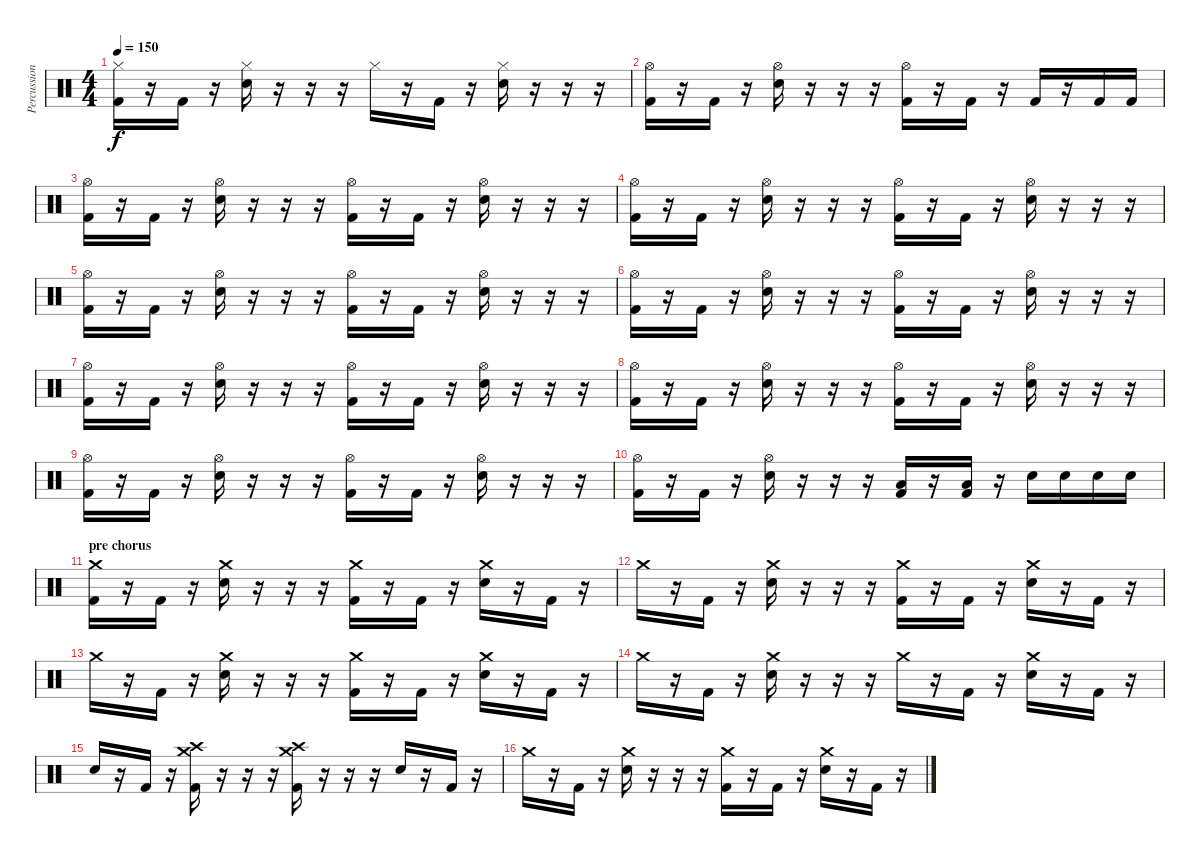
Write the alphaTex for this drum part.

\track ("Percussion" "Percussion") {instrument percussion}
\staff {score}
\articulation defaults
\ts (4 4)
\tempo 150
\clef neutral
\ks c
("Hi-Hat (closed)" "Kick (hit) 2").16{dy f} r.16 "Kick (hit) 2".16 r.16 ("Hi-Hat (closed)" "Electric Snare (hit)").16 r.16 r.16 r.16 "Hi-Hat (closed)".16 r.16 "Kick (hit) 2".16 r.16 ("Hi-Hat (closed)" "Electric Snare (hit)").16 r.16 r.16 r.16 |
("Hi-Hat (open)" "Kick (hit) 2").16 r.16 "Kick (hit) 2".16 r.16 ("Hi-Hat (open)" "Electric Snare (hit)").16 r.16 r.16 r.16 ("Hi-Hat (open)" "Kick (hit) 2").16 r.16 "Kick (hit) 2".16 r.16 "Kick (hit) 2".16 r.16 "Kick (hit) 2".16 "Kick (hit) 2".16 |
("Hi-Hat (open)" "Kick (hit) 2").16 r.16 "Kick (hit) 2".16 r.16 ("Hi-Hat (open)" "Electric Snare (hit)").16 r.16 r.16 r.16 ("Hi-Hat (open)" "Kick (hit) 2").16 r.16 "Kick (hit) 2".16 r.16 ("Hi-Hat (open)" "Electric Snare (hit)").16 r.16 r.16 r.16 |
("Hi-Hat (open)" "Kick (hit) 2").16 r.16 "Kick (hit) 2".16 r.16 ("Hi-Hat (open)" "Electric Snare (hit)").16 r.16 r.16 r.16 ("Hi-Hat (open)" "Kick (hit) 2").16 r.16 "Kick (hit) 2".16 r.16 ("Hi-Hat (open)" "Electric Snare (hit)").16 r.16 r.16 r.16 |
("Hi-Hat (open)" "Kick (hit) 2").16 r.16 "Kick (hit) 2".16 r.16 ("Hi-Hat (open)" "Electric Snare (hit)").16 r.16 r.16 r.16 ("Hi-Hat (open)" "Kick (hit) 2").16 r.16 "Kick (hit) 2".16 r.16 ("Hi-Hat (open)" "Electric Snare (hit)").16 r.16 r.16 r.16 |
("Hi-Hat (open)" "Kick (hit) 2").16 r.16 "Kick (hit) 2".16 r.16 ("Hi-Hat (open)" "Electric Snare (hit)").16 r.16 r.16 r.16 ("Hi-Hat (open)" "Kick (hit) 2").16 r.16 "Kick (hit) 2".16 r.16 ("Hi-Hat (open)" "Electric Snare (hit)").16 r.16 r.16 r.16 |
("Hi-Hat (open)" "Kick (hit) 2").16 r.16 "Kick (hit) 2".16 r.16 ("Hi-Hat (open)" "Electric Snare (hit)").16 r.16 r.16 r.16 ("Hi-Hat (open)" "Kick (hit) 2").16 r.16 "Kick (hit) 2".16 r.16 ("Hi-Hat (open)" "Electric Snare (hit)").16 r.16 r.16 r.16 |
("Hi-Hat (open)" "Kick (hit) 2").16 r.16 "Kick (hit) 2".16 r.16 ("Hi-Hat (open)" "Electric Snare (hit)").16 r.16 r.16 r.16 ("Hi-Hat (open)" "Kick (hit) 2").16 r.16 "Kick (hit) 2".16 r.16 ("Hi-Hat (open)" "Electric Snare (hit)").16 r.16 r.16 r.16 |
("Hi-Hat (open)" "Kick (hit) 2").16 r.16 "Kick (hit) 2".16 r.16 ("Hi-Hat (open)" "Electric Snare (hit)").16 r.16 r.16 r.16 ("Hi-Hat (open)" "Kick (hit) 2").16 r.16 "Kick (hit) 2".16 r.16 ("Hi-Hat (open)" "Electric Snare (hit)").16 r.16 r.16 r.16 |
("Hi-Hat (open)" "Kick (hit) 2").16 r.16 "Kick (hit) 2".16 r.16 ("Hi-Hat (open)" "Electric Snare (hit)").16 r.16 r.16 r.16 ("Low Floor Tom (hit)" "Kick (hit) 2").16 r.16 ("Low Floor Tom (hit)" "Kick (hit) 2").16 r.16 "Electric Snare (hit)".16 "Electric Snare (hit)".16 "Electric Snare (hit)".16 "Electric Snare (hit)".16 |
\section ("" "pre chorus")
("Crash medium (hit)" "Kick (hit) 2").16 r.16 "Kick (hit) 2".16 r.16 ("Crash medium (hit)" "Electric Snare (hit)").16 r.16 r.16 r.16 ("Crash medium (hit)" "Kick (hit) 2").16 r.16 "Kick (hit) 2".16 r.16 ("Crash medium (hit)" "Electric Snare (hit)").16 r.16 "Kick (hit) 2".16 r.16 |
"Crash medium (hit)".16 r.16 "Kick (hit) 2".16 r.16 ("Crash medium (hit)" "Electric Snare (hit)").16 r.16 r.16 r.16 ("Crash medium (hit)" "Kick (hit) 2").16 r.16 "Kick (hit) 2".16 r.16 ("Crash medium (hit)" "Electric Snare (hit)").16 r.16 "Kick (hit) 2".16 r.16 |
"Crash medium (hit)".16 r.16 "Kick (hit) 2".16 r.16 ("Crash medium (hit)" "Electric Snare (hit)").16 r.16 r.16 r.16 ("Crash medium (hit)" "Kick (hit) 2").16 r.16 "Kick (hit) 2".16 r.16 ("Crash medium (hit)" "Electric Snare (hit)").16 r.16 "Kick (hit) 2".16 r.16 |
"Crash medium (hit)".16 r.16 "Kick (hit) 2".16 r.16 ("Crash medium (hit)" "Electric Snare (hit)").16 r.16 r.16 r.16 "Crash medium (hit)".16 r.16 "Kick (hit) 2".16 r.16 ("Crash medium (hit)" "Electric Snare (hit)").16 r.16 "Kick (hit) 2".16 r.16 |
"Electric Snare (hit)".16 r.16 "Kick (hit) 2".16 r.16 ("Crash high (hit)" "Crash medium (hit)" "Kick (hit) 2").16 r.16 r.16 r.16 ("Crash high (hit)" "Crash medium (hit)" "Kick (hit) 2").16 r.16 r.16 r.16 "Electric Snare (hit)".16 r.16 "Kick (hit) 2".16 r.16 |
"Crash medium (hit)".16 r.16 "Kick (hit) 2".16 r.16 ("Crash medium (hit)" "Electric Snare (hit)").16 r.16 r.16 r.16 ("Crash medium (hit)" "Kick (hit) 2").16 r.16 "Kick (hit) 2".16 r.16 ("Crash medium (hit)" "Electric Snare (hit)").16 r.16 "Kick (hit) 2".16 r.16
